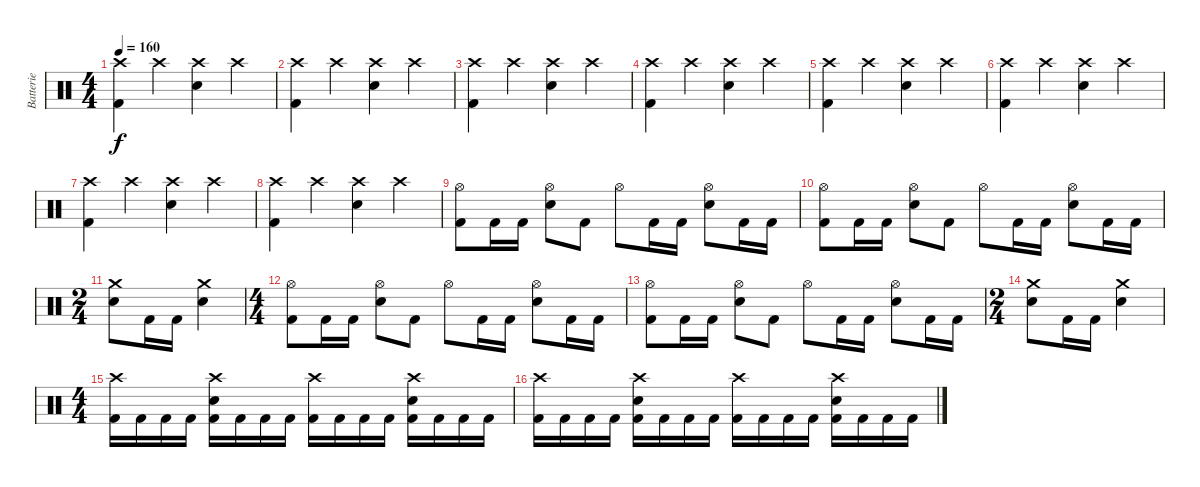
\track ("Batterie" "Batterie") {instrument percussion}
\staff {score}
\articulation defaults
\ts (4 4)
\tempo 160
\clef neutral
\ks c
("Crash high (hit)" "Kick (hit) 2").4{dy f} "Crash high (hit)".4 ("Crash high (hit)" "Electric Snare (hit)").4 "Crash high (hit)".4 |
("Crash high (hit)" "Kick (hit) 2").4 "Crash high (hit)".4 ("Crash high (hit)" "Electric Snare (hit)").4 "Crash high (hit)".4 |
("Crash high (hit)" "Kick (hit) 2").4 "Crash high (hit)".4 ("Crash high (hit)" "Electric Snare (hit)").4 "Crash high (hit)".4 |
("Crash high (hit)" "Kick (hit) 2").4 "Crash high (hit)".4 ("Crash high (hit)" "Electric Snare (hit)").4 "Crash high (hit)".4 |
("Crash high (hit)" "Kick (hit) 2").4 "Crash high (hit)".4 ("Crash high (hit)" "Electric Snare (hit)").4 "Crash high (hit)".4 |
("Crash high (hit)" "Kick (hit) 2").4 "Crash high (hit)".4 ("Crash high (hit)" "Electric Snare (hit)").4 "Crash high (hit)".4 |
("Crash high (hit)" "Kick (hit) 2").4 "Crash high (hit)".4 ("Crash high (hit)" "Electric Snare (hit)").4 "Crash high (hit)".4 |
("Crash high (hit)" "Kick (hit) 2").4 "Crash high (hit)".4 ("Crash high (hit)" "Electric Snare (hit)").4 "Crash high (hit)".4 |
("Hi-Hat (open)" "Kick (hit) 2").8 "Kick (hit) 2".16 "Kick (hit) 2".16 ("Hi-Hat (open)" "Electric Snare (hit)").8 "Kick (hit) 2".8 "Hi-Hat (open)".8 "Kick (hit) 2".16 "Kick (hit) 2".16 ("Hi-Hat (open)" "Electric Snare (hit)").8 "Kick (hit) 2".16 "Kick (hit) 2".16 |
("Hi-Hat (open)" "Kick (hit) 2").8 "Kick (hit) 2".16 "Kick (hit) 2".16 ("Hi-Hat (open)" "Electric Snare (hit)").8 "Kick (hit) 2".8 "Hi-Hat (open)".8 "Kick (hit) 2".16 "Kick (hit) 2".16 ("Hi-Hat (open)" "Electric Snare (hit)").8 "Kick (hit) 2".16 "Kick (hit) 2".16 |
\ts (2 4)
("Crash medium (hit)" "Electric Snare (hit)").8 "Kick (hit) 2".16 "Kick (hit) 2".16 ("Crash medium (hit)" "Electric Snare (hit)").4 |
\ts (4 4)
("Hi-Hat (open)" "Kick (hit) 2").8 "Kick (hit) 2".16 "Kick (hit) 2".16 ("Hi-Hat (open)" "Electric Snare (hit)").8 "Kick (hit) 2".8 "Hi-Hat (open)".8 "Kick (hit) 2".16 "Kick (hit) 2".16 ("Hi-Hat (open)" "Electric Snare (hit)").8 "Kick (hit) 2".16 "Kick (hit) 2".16 |
("Hi-Hat (open)" "Kick (hit) 2").8 "Kick (hit) 2".16 "Kick (hit) 2".16 ("Hi-Hat (open)" "Electric Snare (hit)").8 "Kick (hit) 2".8 "Hi-Hat (open)".8 "Kick (hit) 2".16 "Kick (hit) 2".16 ("Hi-Hat (open)" "Electric Snare (hit)").8 "Kick (hit) 2".16 "Kick (hit) 2".16 |
\ts (2 4)
("Crash medium (hit)" "Electric Snare (hit)").8 "Kick (hit) 2".16 "Kick (hit) 2".16 ("Crash medium (hit)" "Electric Snare (hit)").4 |
\ts (4 4)
("Crash high (hit)" "Kick (hit) 2").16 "Kick (hit) 2".16 "Kick (hit) 2".16 "Kick (hit) 2".16 ("Crash high (hit)" "Electric Snare (hit)" "Kick (hit) 2").16 "Kick (hit) 2".16 "Kick (hit) 2".16 "Kick (hit) 2".16 ("Crash high (hit)" "Kick (hit) 2").16 "Kick (hit) 2".16 "Kick (hit) 2".16 "Kick (hit) 2".16 ("Crash high (hit)" "Electric Snare (hit)" "Kick (hit) 2").16 "Kick (hit) 2".16 "Kick (hit) 2".16 "Kick (hit) 2".16 |
("Crash high (hit)" "Kick (hit) 2").16 "Kick (hit) 2".16 "Kick (hit) 2".16 "Kick (hit) 2".16 ("Crash high (hit)" "Electric Snare (hit)" "Kick (hit) 2").16 "Kick (hit) 2".16 "Kick (hit) 2".16 "Kick (hit) 2".16 ("Crash high (hit)" "Kick (hit) 2").16 "Kick (hit) 2".16 "Kick (hit) 2".16 "Kick (hit) 2".16 ("Crash high (hit)" "Electric Snare (hit)" "Kick (hit) 2").16 "Kick (hit) 2".16 "Kick (hit) 2".16 "Kick (hit) 2".16
